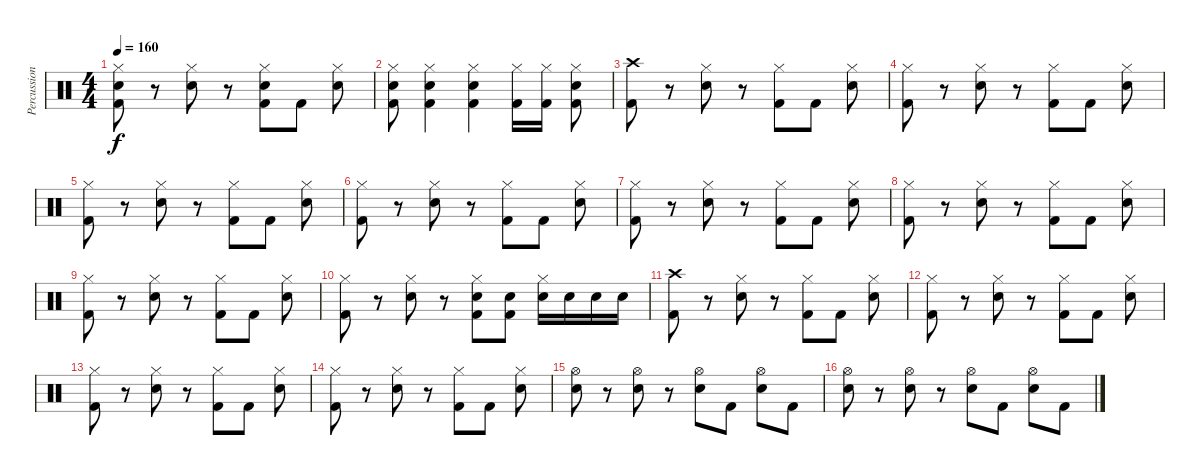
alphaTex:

\track ("Percussion" "Percussion") {instrument percussion}
\staff {score}
\articulation defaults
\ts (4 4)
\tempo 160
\clef neutral
\ks c
("Hi-Hat (closed)" "Electric Snare (hit)" "Kick (hit) 2").8{dy f} r.8 ("Hi-Hat (closed)" "Electric Snare (hit)").8 r.8 ("Hi-Hat (closed)" "Electric Snare (hit)" "Kick (hit) 2").8 "Kick (hit) 2".8 ("Hi-Hat (closed)" "Electric Snare (hit)").8 |
("Hi-Hat (closed)" "Kick (hit) 2" "Electric Snare (hit)").8 ("Hi-Hat (closed)" "Kick (hit) 2" "Electric Snare (hit)").4 ("Hi-Hat (closed)" "Kick (hit) 2" "Electric Snare (hit)").4 ("Hi-Hat (closed)" "Kick (hit) 2").16 ("Hi-Hat (closed)" "Kick (hit) 2").16 ("Hi-Hat (closed)" "Kick (hit) 2" "Electric Snare (hit)").8 |
("Crash high (hit)" "Kick (hit) 2").8 r.8 ("Hi-Hat (closed)" "Electric Snare (hit)").8 r.8 ("Hi-Hat (closed)" "Kick (hit) 2").8 "Kick (hit) 2".8 ("Hi-Hat (closed)" "Electric Snare (hit)").8 |
("Hi-Hat (closed)" "Kick (hit) 2").8 r.8 ("Hi-Hat (closed)" "Electric Snare (hit)").8 r.8 ("Hi-Hat (closed)" "Kick (hit) 2").8 "Kick (hit) 2".8 ("Hi-Hat (closed)" "Electric Snare (hit)").8 |
("Hi-Hat (closed)" "Kick (hit) 2").8 r.8 ("Hi-Hat (closed)" "Electric Snare (hit)").8 r.8 ("Hi-Hat (closed)" "Kick (hit) 2").8 "Kick (hit) 2".8 ("Hi-Hat (closed)" "Electric Snare (hit)").8 |
("Hi-Hat (closed)" "Kick (hit) 2").8 r.8 ("Hi-Hat (closed)" "Electric Snare (hit)").8 r.8 ("Hi-Hat (closed)" "Kick (hit) 2").8 "Kick (hit) 2".8 ("Hi-Hat (closed)" "Electric Snare (hit)").8 |
("Hi-Hat (closed)" "Kick (hit) 2").8 r.8 ("Hi-Hat (closed)" "Electric Snare (hit)").8 r.8 ("Hi-Hat (closed)" "Kick (hit) 2").8 "Kick (hit) 2".8 ("Hi-Hat (closed)" "Electric Snare (hit)").8 |
("Hi-Hat (closed)" "Kick (hit) 2").8 r.8 ("Hi-Hat (closed)" "Electric Snare (hit)").8 r.8 ("Hi-Hat (closed)" "Kick (hit) 2").8 "Kick (hit) 2".8 ("Hi-Hat (closed)" "Electric Snare (hit)").8 |
("Hi-Hat (closed)" "Kick (hit) 2").8 r.8 ("Hi-Hat (closed)" "Electric Snare (hit)").8 r.8 ("Hi-Hat (closed)" "Kick (hit) 2").8 "Kick (hit) 2".8 ("Hi-Hat (closed)" "Electric Snare (hit)").8 |
("Hi-Hat (closed)" "Kick (hit) 2").8 r.8 ("Hi-Hat (closed)" "Electric Snare (hit)").8 r.8 ("Hi-Hat (closed)" "Electric Snare (hit)" "Kick (hit) 2").8 ("Electric Snare (hit)" "Kick (hit) 2").8 ("Hi-Hat (closed)" "Electric Snare (hit)").16 "Electric Snare (hit)".16 "Electric Snare (hit)".16 "Electric Snare (hit)".16 |
("Crash high (hit)" "Kick (hit) 2").8 r.8 ("Hi-Hat (closed)" "Electric Snare (hit)").8 r.8 ("Hi-Hat (closed)" "Kick (hit) 2").8 "Kick (hit) 2".8 ("Hi-Hat (closed)" "Electric Snare (hit)").8 |
("Hi-Hat (closed)" "Kick (hit) 2").8 r.8 ("Hi-Hat (closed)" "Electric Snare (hit)").8 r.8 ("Hi-Hat (closed)" "Kick (hit) 2").8 "Kick (hit) 2".8 ("Hi-Hat (closed)" "Electric Snare (hit)").8 |
("Hi-Hat (closed)" "Kick (hit) 2").8 r.8 ("Hi-Hat (closed)" "Electric Snare (hit)").8 r.8 ("Hi-Hat (closed)" "Kick (hit) 2").8 "Kick (hit) 2".8 ("Hi-Hat (closed)" "Electric Snare (hit)").8 |
("Hi-Hat (closed)" "Kick (hit) 2").8 r.8 ("Hi-Hat (closed)" "Electric Snare (hit)").8 r.8 ("Hi-Hat (closed)" "Kick (hit) 2").8 "Kick (hit) 2".8 ("Hi-Hat (closed)" "Electric Snare (hit)").8 |
("Hi-Hat (open)" "Electric Snare (hit)").8 r.8 ("Hi-Hat (open)" "Electric Snare (hit)").8 r.8 ("Hi-Hat (open)" "Electric Snare (hit)").8 "Kick (hit) 2".8 ("Hi-Hat (open)" "Electric Snare (hit)").8 "Kick (hit) 2".8 |
("Hi-Hat (open)" "Electric Snare (hit)").8 r.8 ("Hi-Hat (open)" "Electric Snare (hit)").8 r.8 ("Hi-Hat (open)" "Electric Snare (hit)").8 "Kick (hit) 2".8 ("Hi-Hat (open)" "Electric Snare (hit)").8 "Kick (hit) 2".8
